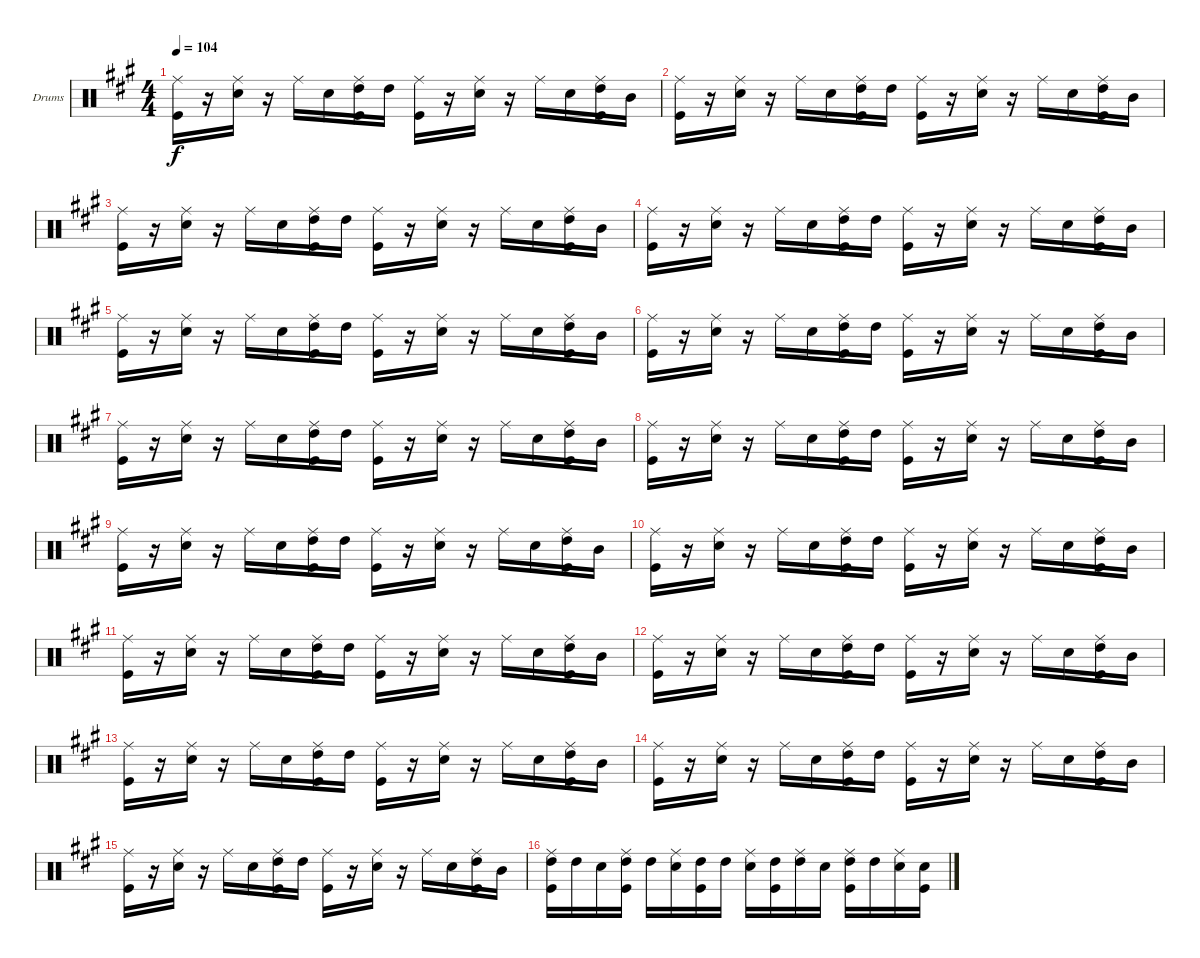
\bracketExtendMode groupsimilarinstruments
\firstSystemTrackNameOrientation horizontal
\otherSystemsTrackNameOrientation horizontal
\track ("Drumkit" "Drums") {instrument percussion}
\staff {score}
\articulation defaults
\ts (4 4)
\tempo 104
\clef neutral
\ks a
("Ride (middle)" "Kick (hit)").16{dy f} r.16 ("Ride (middle)" "Snare (hit) 2").16 r.16 "Ride (middle)".16 "Snare (hit) 2".16 ("Ride (middle)" "High Tom (hit)" "Kick (hit)").16 "High Tom (hit)".16 ("Ride (middle)" "Kick (hit)").16 r.16 ("Ride (middle)" "Snare (hit) 2").16 r.16 "Ride (middle)".16 "Snare (hit) 2".16 ("Ride (middle)" "High Tom (hit)" "Kick (hit)").16 "Mid Tom (hit)".16 |
("Ride (middle)" "Kick (hit)").16 r.16 ("Ride (middle)" "Snare (hit) 2").16 r.16 "Ride (middle)".16 "Snare (hit) 2".16 ("Ride (middle)" "High Tom (hit)" "Kick (hit)").16 "High Tom (hit)".16 ("Ride (middle)" "Kick (hit)").16 r.16 ("Ride (middle)" "Snare (hit) 2").16 r.16 "Ride (middle)".16 "Snare (hit) 2".16 ("Ride (middle)" "High Tom (hit)" "Kick (hit)").16 "Mid Tom (hit)".16 |
("Ride (middle)" "Kick (hit)").16 r.16 ("Ride (middle)" "Snare (hit) 2").16 r.16 "Ride (middle)".16 "Snare (hit) 2".16 ("Ride (middle)" "High Tom (hit)" "Kick (hit)").16 "High Tom (hit)".16 ("Ride (middle)" "Kick (hit)").16 r.16 ("Ride (middle)" "Snare (hit) 2").16 r.16 "Ride (middle)".16 "Snare (hit) 2".16 ("Ride (middle)" "High Tom (hit)" "Kick (hit)").16 "Mid Tom (hit)".16 |
("Ride (middle)" "Kick (hit)").16 r.16 ("Ride (middle)" "Snare (hit) 2").16 r.16 "Ride (middle)".16 "Snare (hit) 2".16 ("Ride (middle)" "High Tom (hit)" "Kick (hit)").16 "High Tom (hit)".16 ("Ride (middle)" "Kick (hit)").16 r.16 ("Ride (middle)" "Snare (hit) 2").16 r.16 "Ride (middle)".16 "Snare (hit) 2".16 ("Ride (middle)" "High Tom (hit)" "Kick (hit)").16 "Mid Tom (hit)".16 |
("Ride (middle)" "Kick (hit)").16 r.16 ("Ride (middle)" "Snare (hit) 2").16 r.16 "Ride (middle)".16 "Snare (hit) 2".16 ("Ride (middle)" "High Tom (hit)" "Kick (hit)").16 "High Tom (hit)".16 ("Ride (middle)" "Kick (hit)").16 r.16 ("Ride (middle)" "Snare (hit) 2").16 r.16 "Ride (middle)".16 "Snare (hit) 2".16 ("Ride (middle)" "High Tom (hit)" "Kick (hit)").16 "Mid Tom (hit)".16 |
("Ride (middle)" "Kick (hit)").16 r.16 ("Ride (middle)" "Snare (hit) 2").16 r.16 "Ride (middle)".16 "Snare (hit) 2".16 ("Ride (middle)" "High Tom (hit)" "Kick (hit)").16 "High Tom (hit)".16 ("Ride (middle)" "Kick (hit)").16 r.16 ("Ride (middle)" "Snare (hit) 2").16 r.16 "Ride (middle)".16 "Snare (hit) 2".16 ("Ride (middle)" "High Tom (hit)" "Kick (hit)").16 "Mid Tom (hit)".16 |
("Ride (middle)" "Kick (hit)").16 r.16 ("Ride (middle)" "Snare (hit) 2").16 r.16 "Ride (middle)".16 "Snare (hit) 2".16 ("Ride (middle)" "High Tom (hit)" "Kick (hit)").16 "High Tom (hit)".16 ("Ride (middle)" "Kick (hit)").16 r.16 ("Ride (middle)" "Snare (hit) 2").16 r.16 "Ride (middle)".16 "Snare (hit) 2".16 ("Ride (middle)" "High Tom (hit)" "Kick (hit)").16 "Mid Tom (hit)".16 |
("Ride (middle)" "Kick (hit)").16 r.16 ("Ride (middle)" "Snare (hit) 2").16 r.16 "Ride (middle)".16 "Snare (hit) 2".16 ("Ride (middle)" "High Tom (hit)" "Kick (hit)").16 "High Tom (hit)".16 ("Ride (middle)" "Kick (hit)").16 r.16 ("Ride (middle)" "Snare (hit) 2").16 r.16 "Ride (middle)".16 "Snare (hit) 2".16 ("Ride (middle)" "High Tom (hit)" "Kick (hit)").16 "Mid Tom (hit)".16 |
("Ride (middle)" "Kick (hit)").16 r.16 ("Ride (middle)" "Snare (hit) 2").16 r.16 "Ride (middle)".16 "Snare (hit) 2".16 ("Ride (middle)" "High Tom (hit)" "Kick (hit)").16 "High Tom (hit)".16 ("Ride (middle)" "Kick (hit)").16 r.16 ("Ride (middle)" "Snare (hit) 2").16 r.16 "Ride (middle)".16 "Snare (hit) 2".16 ("Ride (middle)" "High Tom (hit)" "Kick (hit)").16 "Mid Tom (hit)".16 |
("Ride (middle)" "Kick (hit)").16 r.16 ("Ride (middle)" "Snare (hit) 2").16 r.16 "Ride (middle)".16 "Snare (hit) 2".16 ("Ride (middle)" "High Tom (hit)" "Kick (hit)").16 "High Tom (hit)".16 ("Ride (middle)" "Kick (hit)").16 r.16 ("Ride (middle)" "Snare (hit) 2").16 r.16 "Ride (middle)".16 "Snare (hit) 2".16 ("Ride (middle)" "High Tom (hit)" "Kick (hit)").16 "Mid Tom (hit)".16 |
("Ride (middle)" "Kick (hit)").16 r.16 ("Ride (middle)" "Snare (hit) 2").16 r.16 "Ride (middle)".16 "Snare (hit) 2".16 ("Ride (middle)" "High Tom (hit)" "Kick (hit)").16 "High Tom (hit)".16 ("Ride (middle)" "Kick (hit)").16 r.16 ("Ride (middle)" "Snare (hit) 2").16 r.16 "Ride (middle)".16 "Snare (hit) 2".16 ("Ride (middle)" "High Tom (hit)" "Kick (hit)").16 "Mid Tom (hit)".16 |
("Ride (middle)" "Kick (hit)").16 r.16 ("Ride (middle)" "Snare (hit) 2").16 r.16 "Ride (middle)".16 "Snare (hit) 2".16 ("Ride (middle)" "High Tom (hit)" "Kick (hit)").16 "High Tom (hit)".16 ("Ride (middle)" "Kick (hit)").16 r.16 ("Ride (middle)" "Snare (hit) 2").16 r.16 "Ride (middle)".16 "Snare (hit) 2".16 ("Ride (middle)" "High Tom (hit)" "Kick (hit)").16 "Mid Tom (hit)".16 |
("Ride (middle)" "Kick (hit)").16 r.16 ("Ride (middle)" "Snare (hit) 2").16 r.16 "Ride (middle)".16 "Snare (hit) 2".16 ("Ride (middle)" "High Tom (hit)" "Kick (hit)").16 "High Tom (hit)".16 ("Ride (middle)" "Kick (hit)").16 r.16 ("Ride (middle)" "Snare (hit) 2").16 r.16 "Ride (middle)".16 "Snare (hit) 2".16 ("Ride (middle)" "High Tom (hit)" "Kick (hit)").16 "Mid Tom (hit)".16 |
("Ride (middle)" "Kick (hit)").16 r.16 ("Ride (middle)" "Snare (hit) 2").16 r.16 "Ride (middle)".16 "Snare (hit) 2".16 ("Ride (middle)" "High Tom (hit)" "Kick (hit)").16 "High Tom (hit)".16 ("Ride (middle)" "Kick (hit)").16 r.16 ("Ride (middle)" "Snare (hit) 2").16 r.16 "Ride (middle)".16 "Snare (hit) 2".16 ("Ride (middle)" "High Tom (hit)" "Kick (hit)").16 "Mid Tom (hit)".16 |
("Ride (middle)" "Kick (hit)").16 r.16 ("Ride (middle)" "Snare (hit) 2").16 r.16 "Ride (middle)".16 "Snare (hit) 2".16 ("Ride (middle)" "High Tom (hit)" "Kick (hit)").16 "High Tom (hit)".16 ("Ride (middle)" "Kick (hit)").16 r.16 ("Ride (middle)" "Snare (hit) 2").16 r.16 "Ride (middle)".16 "Snare (hit) 2".16 ("Ride (middle)" "High Tom (hit)" "Kick (hit)").16 "Mid Tom (hit)".16 |
("Ride (middle)" "High Tom (hit)" "Kick (hit)").16 "High Tom (hit)".16 "Snare (hit) 2".16 ("Ride (middle)" "High Tom (hit)" "Kick (hit)").16 "High Tom (hit)".16 ("Ride (middle)" "Snare (hit) 2").16 ("High Tom (hit)" "Kick (hit)").16 "High Tom (hit)".16 ("Ride (middle)" "Snare (hit) 2").16 ("High Tom (hit)" "Kick (hit)").16 ("Ride (middle)" "High Tom (hit)").16 "Snare (hit) 2".16 ("Ride (middle)" "High Tom (hit)" "Kick (hit)").16 "High Tom (hit)".16 ("Ride (middle)" "Snare (hit) 2").16 ("Snare (hit) 2" "Kick (hit)").16
